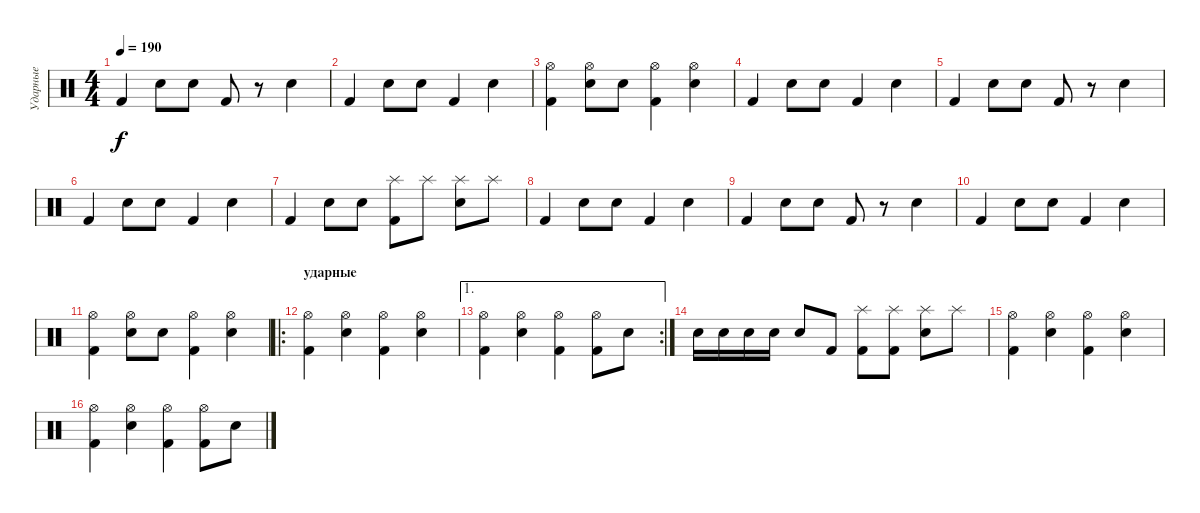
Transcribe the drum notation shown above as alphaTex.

\track ("Ударные" "Ударные") {instrument percussion}
\staff {score}
\articulation defaults
\ts (4 4)
\tempo 190
\clef neutral
\ks c "Kick (hit) 2".4{dy f} "Electric Snare (hit)".8 "Electric Snare (hit)".8 "Kick (hit) 2".8
r.8 "Electric Snare (hit)".4 |
"Kick (hit) 2".4 "Electric Snare (hit)".8 "Electric Snare (hit)".8 "Kick (hit) 2".4 "Electric Snare (hit)".4 |
("Hi-Hat (open)" "Kick (hit) 2").4 ("Hi-Hat (open)" "Electric Snare (hit)").8 "Electric Snare (hit)".8 ("Hi-Hat (open)" "Kick (hit) 2").4 ("Hi-Hat (open)" "Electric Snare (hit)").4 |
"Kick (hit) 2".4 "Electric Snare (hit)".8 "Electric Snare (hit)".8 "Kick (hit) 2".4 "Electric Snare (hit)".4 |
"Kick (hit) 2".4 "Electric Snare (hit)".8 "Electric Snare (hit)".8 "Kick (hit) 2".8 r.8 "Electric Snare (hit)".4 |
"Kick (hit) 2".4 "Electric Snare (hit)".8 "Electric Snare (hit)".8 "Kick (hit) 2".4 "Electric Snare (hit)".4 |
"Kick (hit) 2".4 "Electric Snare (hit)".8 "Electric Snare (hit)".8 ("Splash (hit)" "Kick (hit) 2").8 "Splash (hit)".8 ("Splash (hit)" "Electric Snare (hit)").8 "Splash (hit)".8 |
"Kick (hit) 2".4 "Electric Snare (hit)".8 "Electric Snare (hit)".8 "Kick (hit) 2".4 "Electric Snare (hit)".4 |
"Kick (hit) 2".4 "Electric Snare (hit)".8 "Electric Snare (hit)".8 "Kick (hit) 2".8 r.8 "Electric Snare (hit)".4 |
"Kick (hit) 2".4 "Electric Snare (hit)".8 "Electric Snare (hit)".8 "Kick (hit) 2".4 "Electric Snare (hit)".4 |
("Hi-Hat (open)" "Kick (hit) 2").4 ("Hi-Hat (open)" "Electric Snare (hit)").8 "Electric Snare (hit)".8 ("Hi-Hat (open)" "Kick (hit) 2").4 ("Hi-Hat (open)" "Electric Snare (hit)").4 |
\ro
\section ("" "ударные")
("Hi-Hat (open)" "Kick (hit) 2").4 ("Hi-Hat (open)" "Electric Snare (hit)").4 ("Hi-Hat (open)" "Kick (hit) 2").4 ("Hi-Hat (open)" "Electric Snare (hit)").4 |
\ae 1
\rc 2
("Hi-Hat (open)" "Kick (hit) 2").4 ("Hi-Hat (open)" "Electric Snare (hit)").4 ("Hi-Hat (open)" "Kick (hit) 2").4 ("Hi-Hat (open)" "Kick (hit) 2").8 "Electric Snare (hit)".8 |
"Electric Snare (hit)".16 "Electric Snare (hit)".16 "Electric Snare (hit)".16 "Electric Snare (hit)".16 "Electric Snare (hit)".8 "Kick (hit) 2".8 ("Splash (hit)" "Kick (hit) 2").8 ("Splash (hit)" "Kick (hit) 2").8 ("Splash (hit)" "Electric Snare (hit)").8 "Splash (hit)".8 |
("Hi-Hat (open)" "Kick (hit) 2").4 ("Hi-Hat (open)" "Electric Snare (hit)").4 ("Hi-Hat (open)" "Kick (hit) 2").4 ("Hi-Hat (open)" "Electric Snare (hit)").4 |
("Hi-Hat (open)" "Kick (hit) 2").4 ("Hi-Hat (open)" "Electric Snare (hit)").4 ("Hi-Hat (open)" "Kick (hit) 2").4 ("Hi-Hat (open)" "Kick (hit) 2").8 "Electric Snare (hit)".8
